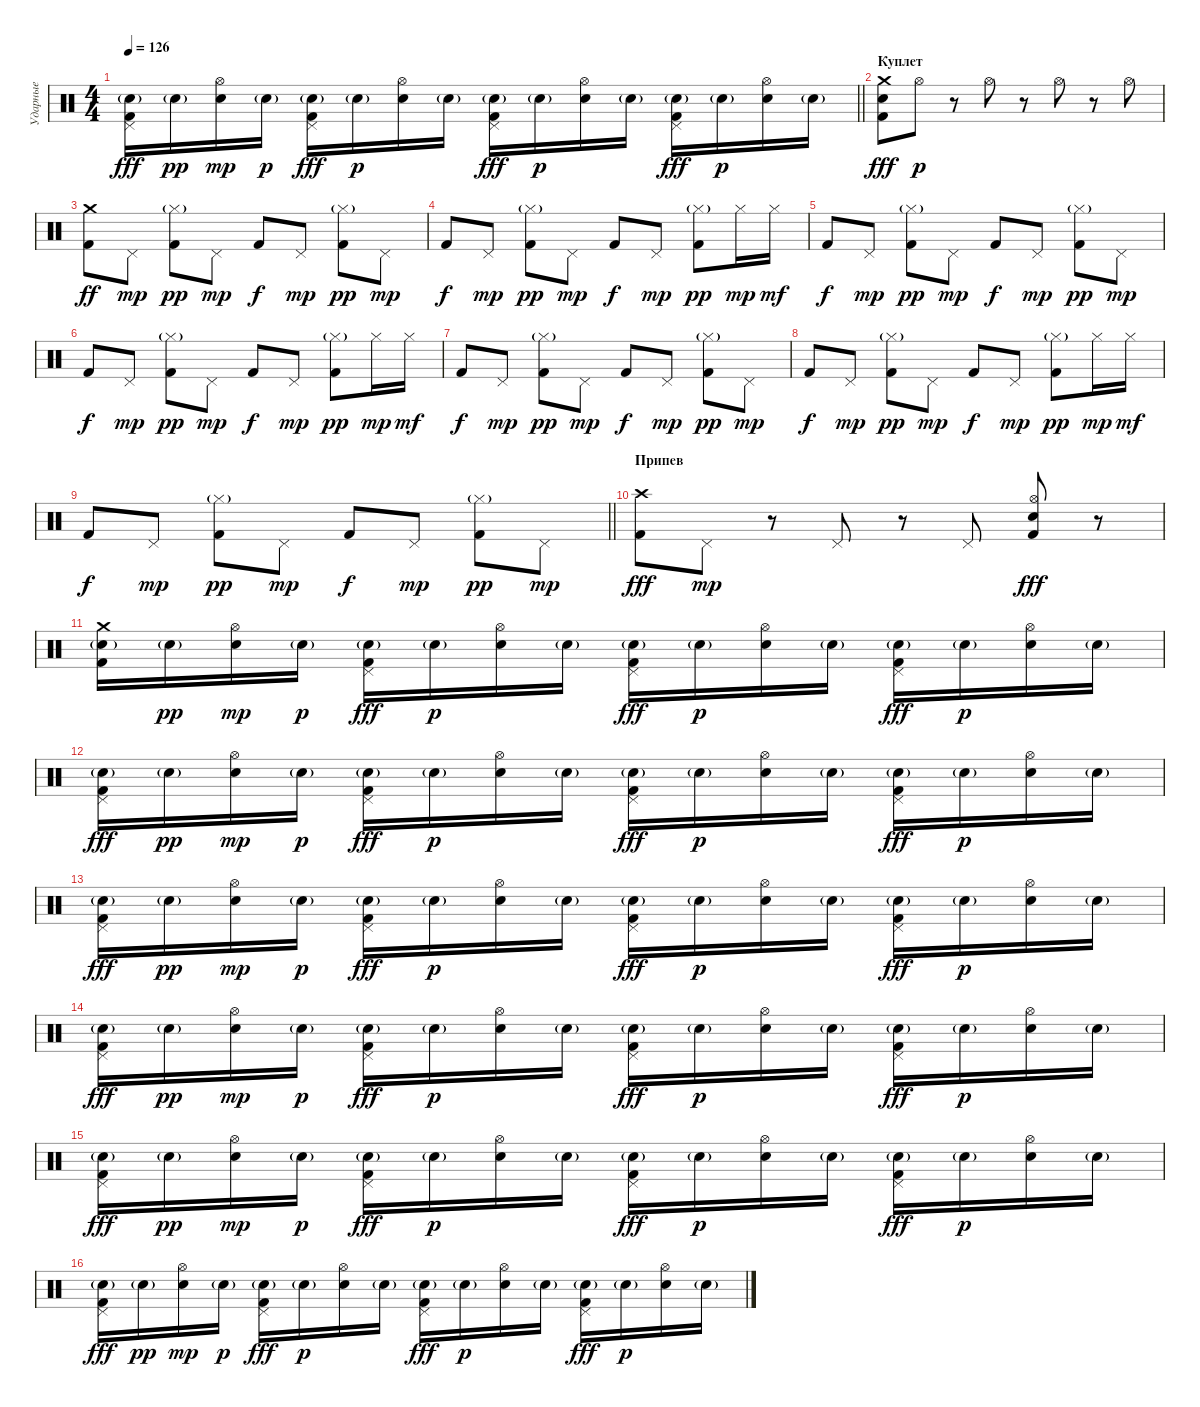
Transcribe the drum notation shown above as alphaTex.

\track ("Ударные" "Ударные") {instrument percussion}
\staff {score}
\articulation defaults
\ts (4 4)
\tempo 126
\clef neutral
\barLineRight lightlight
\ks c
("Pedal Hi-Hat (hit)" "Snare (hit) 2"{g} "Kick (hit) 2").16{dy fff} "Snare (hit) 2"{g}.16{dy pp} ("Hi-Hat (open)" "Electric Snare (hit)").16{dy mp} "Snare (hit) 2"{g}.16{dy p} ("Pedal Hi-Hat (hit)" "Snare (hit) 2"{g} "Kick (hit) 2").16{dy fff} "Snare (hit) 2"{g}.16{dy p} ("Hi-Hat (open)" "Electric Snare (hit)").16 "Snare (hit) 2"{g}.16 ("Pedal Hi-Hat (hit)" "Snare (hit) 2"{g} "Kick (hit) 2").16{dy fff} "Snare (hit) 2"{g}.16{dy p} ("Hi-Hat (open)" "Electric Snare (hit)").16 "Snare (hit) 2"{g}.16 ("Pedal Hi-Hat (hit)" "Snare (hit) 2"{g} "Kick (hit) 2").16{dy fff} "Snare (hit) 2"{g}.16{dy p} ("Hi-Hat (open)" "Electric Snare (hit)").16 "Snare (hit) 2"{g}.16 |
\section ("" "Куплет")
("Crash medium (hit)" "Electric Snare (hit)" "Kick (hit) 2").8{dy fff} "Hi-Hat (open)".8{dy p} r.8 "Hi-Hat (open)".8 r.8 "Hi-Hat (open)".8 r.8 "Hi-Hat (open)".8 |
("Crash medium (hit)" "Kick (hit) 2").8{dy ff} "Pedal Hi-Hat (hit)".8{dy mp} ("Hi-Hat (closed)"{g} "Kick (hit) 2").8{dy pp} "Pedal Hi-Hat (hit)".8{dy mp} "Kick (hit) 2".8{dy f} "Pedal Hi-Hat (hit)".8{dy mp} ("Hi-Hat (closed)"{g} "Kick (hit) 2").8{dy pp} "Pedal Hi-Hat (hit)".8{dy mp} |
"Kick (hit) 2".8{dy f} "Pedal Hi-Hat (hit)".8{dy mp} ("Hi-Hat (closed)"{g} "Kick (hit) 2").8{dy pp} "Pedal Hi-Hat (hit)".8{dy mp} "Kick (hit) 2".8{dy f} "Pedal Hi-Hat (hit)".8{dy mp} ("Hi-Hat (closed)"{g} "Kick (hit) 2").8{dy pp} "Hi-Hat (closed)".16{dy mp} "Hi-Hat (closed)".16{dy mf} |
"Kick (hit) 2".8{dy f} "Pedal Hi-Hat (hit)".8{dy mp} ("Hi-Hat (closed)"{g} "Kick (hit) 2").8{dy pp} "Pedal Hi-Hat (hit)".8{dy mp} "Kick (hit) 2".8{dy f} "Pedal Hi-Hat (hit)".8{dy mp} ("Hi-Hat (closed)"{g} "Kick (hit) 2").8{dy pp} "Pedal Hi-Hat (hit)".8{dy mp} |
"Kick (hit) 2".8{dy f} "Pedal Hi-Hat (hit)".8{dy mp} ("Hi-Hat (closed)"{g} "Kick (hit) 2").8{dy pp} "Pedal Hi-Hat (hit)".8{dy mp} "Kick (hit) 2".8{dy f} "Pedal Hi-Hat (hit)".8{dy mp} ("Hi-Hat (closed)"{g} "Kick (hit) 2").8{dy pp} "Hi-Hat (closed)".16{dy mp} "Hi-Hat (closed)".16{dy mf} |
"Kick (hit) 2".8{dy f} "Pedal Hi-Hat (hit)".8{dy mp} ("Hi-Hat (closed)"{g} "Kick (hit) 2").8{dy pp} "Pedal Hi-Hat (hit)".8{dy mp} "Kick (hit) 2".8{dy f} "Pedal Hi-Hat (hit)".8{dy mp} ("Hi-Hat (closed)"{g} "Kick (hit) 2").8{dy pp} "Pedal Hi-Hat (hit)".8{dy mp} |
"Kick (hit) 2".8{dy f} "Pedal Hi-Hat (hit)".8{dy mp} ("Hi-Hat (closed)"{g} "Kick (hit) 2").8{dy pp} "Pedal Hi-Hat (hit)".8{dy mp} "Kick (hit) 2".8{dy f} "Pedal Hi-Hat (hit)".8{dy mp} ("Hi-Hat (closed)"{g} "Kick (hit) 2").8{dy pp} "Hi-Hat (closed)".16{dy mp} "Hi-Hat (closed)".16{dy mf} |
\barLineRight lightlight "Kick (hit) 2".8{dy f} "Pedal Hi-Hat (hit)".8{dy mp}
("Hi-Hat (closed)"{g} "Kick (hit) 2").8{dy pp} "Pedal Hi-Hat (hit)".8{dy mp} "Kick (hit) 2".8{dy f} "Pedal Hi-Hat (hit)".8{dy mp} ("Hi-Hat (closed)"{g} "Kick (hit) 2").8{dy pp} "Pedal Hi-Hat (hit)".8{dy mp} |
\section ("" "Припев")
("Crash high (hit)" "Kick (hit) 2").8{dy fff} "Pedal Hi-Hat (hit)".8{dy mp} r.8 "Pedal Hi-Hat (hit)".8 r.8 "Pedal Hi-Hat (hit)".8 ("Hi-Hat (open)" "Electric Snare (hit)" "Kick (hit) 2").8{dy fff} r.8 |
("Crash medium (hit)" "Snare (hit) 2"{g} "Kick (hit) 2").16 "Snare (hit) 2"{g}.16{dy pp} ("Hi-Hat (open)" "Electric Snare (hit)").16{dy mp} "Snare (hit) 2"{g}.16{dy p} ("Pedal Hi-Hat (hit)" "Snare (hit) 2"{g} "Kick (hit) 2").16{dy fff} "Snare (hit) 2"{g}.16{dy p} ("Hi-Hat (open)" "Electric Snare (hit)").16 "Snare (hit) 2"{g}.16 ("Pedal Hi-Hat (hit)" "Snare (hit) 2"{g} "Kick (hit) 2").16{dy fff} "Snare (hit) 2"{g}.16{dy p} ("Hi-Hat (open)" "Electric Snare (hit)").16 "Snare (hit) 2"{g}.16 ("Pedal Hi-Hat (hit)" "Snare (hit) 2"{g} "Kick (hit) 2").16{dy fff} "Snare (hit) 2"{g}.16{dy p} ("Hi-Hat (open)" "Electric Snare (hit)").16 "Snare (hit) 2"{g}.16 |
("Pedal Hi-Hat (hit)" "Snare (hit) 2"{g} "Kick (hit) 2").16{dy fff} "Snare (hit) 2"{g}.16{dy pp} ("Hi-Hat (open)" "Electric Snare (hit)").16{dy mp} "Snare (hit) 2"{g}.16{dy p} ("Pedal Hi-Hat (hit)" "Snare (hit) 2"{g} "Kick (hit) 2").16{dy fff} "Snare (hit) 2"{g}.16{dy p} ("Hi-Hat (open)" "Electric Snare (hit)").16 "Snare (hit) 2"{g}.16 ("Pedal Hi-Hat (hit)" "Snare (hit) 2"{g} "Kick (hit) 2").16{dy fff} "Snare (hit) 2"{g}.16{dy p} ("Hi-Hat (open)" "Electric Snare (hit)").16 "Snare (hit) 2"{g}.16 ("Pedal Hi-Hat (hit)" "Snare (hit) 2"{g} "Kick (hit) 2").16{dy fff} "Snare (hit) 2"{g}.16{dy p} ("Hi-Hat (open)" "Electric Snare (hit)").16 "Snare (hit) 2"{g}.16 |
("Pedal Hi-Hat (hit)" "Snare (hit) 2"{g} "Kick (hit) 2").16{dy fff} "Snare (hit) 2"{g}.16{dy pp} ("Hi-Hat (open)" "Electric Snare (hit)").16{dy mp} "Snare (hit) 2"{g}.16{dy p} ("Pedal Hi-Hat (hit)" "Snare (hit) 2"{g} "Kick (hit) 2").16{dy fff} "Snare (hit) 2"{g}.16{dy p} ("Hi-Hat (open)" "Electric Snare (hit)").16 "Snare (hit) 2"{g}.16 ("Pedal Hi-Hat (hit)" "Snare (hit) 2"{g} "Kick (hit) 2").16{dy fff} "Snare (hit) 2"{g}.16{dy p} ("Hi-Hat (open)" "Electric Snare (hit)").16 "Snare (hit) 2"{g}.16 ("Pedal Hi-Hat (hit)" "Snare (hit) 2"{g} "Kick (hit) 2").16{dy fff} "Snare (hit) 2"{g}.16{dy p} ("Hi-Hat (open)" "Electric Snare (hit)").16 "Snare (hit) 2"{g}.16 |
("Pedal Hi-Hat (hit)" "Snare (hit) 2"{g} "Kick (hit) 2").16{dy fff} "Snare (hit) 2"{g}.16{dy pp} ("Hi-Hat (open)" "Electric Snare (hit)").16{dy mp} "Snare (hit) 2"{g}.16{dy p} ("Pedal Hi-Hat (hit)" "Snare (hit) 2"{g} "Kick (hit) 2").16{dy fff} "Snare (hit) 2"{g}.16{dy p} ("Hi-Hat (open)" "Electric Snare (hit)").16 "Snare (hit) 2"{g}.16 ("Pedal Hi-Hat (hit)" "Snare (hit) 2"{g} "Kick (hit) 2").16{dy fff} "Snare (hit) 2"{g}.16{dy p} ("Hi-Hat (open)" "Electric Snare (hit)").16 "Snare (hit) 2"{g}.16 ("Pedal Hi-Hat (hit)" "Snare (hit) 2"{g} "Kick (hit) 2").16{dy fff} "Snare (hit) 2"{g}.16{dy p} ("Hi-Hat (open)" "Electric Snare (hit)").16 "Snare (hit) 2"{g}.16 |
("Pedal Hi-Hat (hit)" "Snare (hit) 2"{g} "Kick (hit) 2").16{dy fff} "Snare (hit) 2"{g}.16{dy pp} ("Hi-Hat (open)" "Electric Snare (hit)").16{dy mp} "Snare (hit) 2"{g}.16{dy p} ("Pedal Hi-Hat (hit)" "Snare (hit) 2"{g} "Kick (hit) 2").16{dy fff} "Snare (hit) 2"{g}.16{dy p} ("Hi-Hat (open)" "Electric Snare (hit)").16 "Snare (hit) 2"{g}.16 ("Pedal Hi-Hat (hit)" "Snare (hit) 2"{g} "Kick (hit) 2").16{dy fff} "Snare (hit) 2"{g}.16{dy p} ("Hi-Hat (open)" "Electric Snare (hit)").16 "Snare (hit) 2"{g}.16 ("Pedal Hi-Hat (hit)" "Snare (hit) 2"{g} "Kick (hit) 2").16{dy fff} "Snare (hit) 2"{g}.16{dy p} ("Hi-Hat (open)" "Electric Snare (hit)").16 "Snare (hit) 2"{g}.16 |
("Pedal Hi-Hat (hit)" "Snare (hit) 2"{g} "Kick (hit) 2").16{dy fff} "Snare (hit) 2"{g}.16{dy pp} ("Hi-Hat (open)" "Electric Snare (hit)").16{dy mp} "Snare (hit) 2"{g}.16{dy p} ("Pedal Hi-Hat (hit)" "Snare (hit) 2"{g} "Kick (hit) 2").16{dy fff} "Snare (hit) 2"{g}.16{dy p} ("Hi-Hat (open)" "Electric Snare (hit)").16 "Snare (hit) 2"{g}.16 ("Pedal Hi-Hat (hit)" "Snare (hit) 2"{g} "Kick (hit) 2").16{dy fff} "Snare (hit) 2"{g}.16{dy p} ("Hi-Hat (open)" "Electric Snare (hit)").16 "Snare (hit) 2"{g}.16 ("Pedal Hi-Hat (hit)" "Snare (hit) 2"{g} "Kick (hit) 2").16{dy fff} "Snare (hit) 2"{g}.16{dy p} ("Hi-Hat (open)" "Electric Snare (hit)").16 "Snare (hit) 2"{g}.16
